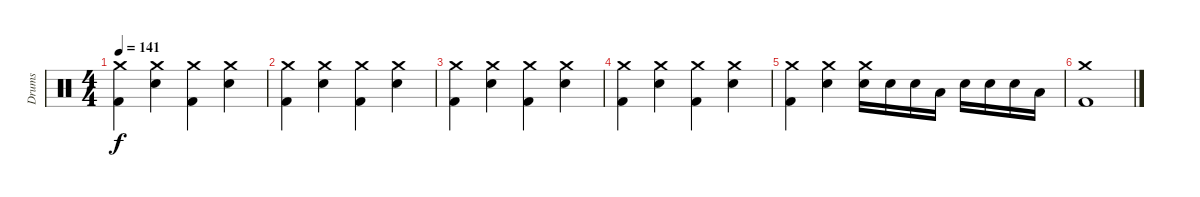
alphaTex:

\track ("Drums" "Drums") {instrument percussion}
\staff {score}
\articulation defaults
\ts (4 4)
\tempo 141
\clef neutral
\ks c
("Crash medium (hit)" "Kick (hit) 2").4{dy f} ("Crash medium (hit)" "Snare (hit) 2").4 ("Crash medium (hit)" "Kick (hit) 2").4 ("Crash medium (hit)" "Snare (hit) 2").4 |
("Crash medium (hit)" "Kick (hit) 2").4 ("Crash medium (hit)" "Snare (hit) 2").4 ("Crash medium (hit)" "Kick (hit) 2").4 ("Crash medium (hit)" "Snare (hit) 2").4 |
("Crash medium (hit)" "Kick (hit) 2").4 ("Crash medium (hit)" "Snare (hit) 2").4 ("Crash medium (hit)" "Kick (hit) 2").4 ("Crash medium (hit)" "Snare (hit) 2").4 |
("Crash medium (hit)" "Kick (hit) 2").4 ("Crash medium (hit)" "Snare (hit) 2").4 ("Crash medium (hit)" "Kick (hit) 2").4 ("Crash medium (hit)" "Snare (hit) 2").4 |
("Crash medium (hit)" "Kick (hit) 2").4 ("Crash medium (hit)" "Snare (hit) 2").4 ("Crash medium (hit)" "Snare (hit) 2").16 "Snare (hit) 2".16 "Snare (hit) 2".16 "Low Tom (hit)".16 "Snare (hit) 2".16 "Snare (hit) 2".16 "Snare (hit) 2".16 "Low Tom (hit)".16 |
("Crash medium (hit)" "Kick (hit) 2").1
